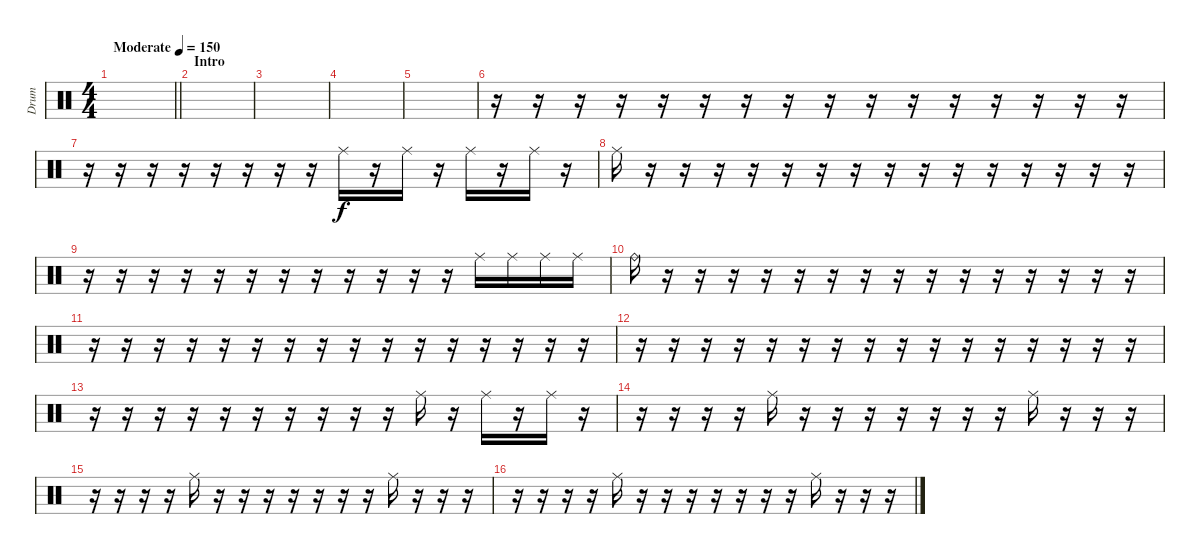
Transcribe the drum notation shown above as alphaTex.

\track ("Drum" "Drum") {instrument percussion}
\staff {score}
\articulation defaults
\ts (4 4)
\tempo (150 "Moderate")
\clef neutral
\barLineRight lightlight
\ks c
|
\section ("" "Intro")
|
|
|
|
r.16 r.16 r.16 r.16 r.16 r.16 r.16 r.16 r.16 r.16 r.16 r.16 r.16 r.16 r.16 r.16 |
r.16 r.16 r.16 r.16 r.16 r.16 r.16 r.16 "Ride (middle)".16 r.16 "Ride (middle)".16 r.16 "Ride (middle)".16 r.16 "Ride (middle)".16 r.16 |
"Ride (middle)".16 r.16 r.16 r.16 r.16 r.16 r.16 r.16 r.16 r.16 r.16 r.16 r.16 r.16 r.16 r.16 |
r.16 r.16 r.16 r.16 r.16 r.16 r.16 r.16 r.16 r.16 r.16 r.16 "Ride (middle)".16 "Ride (middle)".16 "Ride (middle)".16 "Ride (middle)".16 |
"Ride (bell)".16 r.16 r.16 r.16 r.16 r.16 r.16 r.16 r.16 r.16 r.16 r.16 r.16 r.16 r.16 r.16 |
r.16 r.16 r.16 r.16 r.16 r.16 r.16 r.16 r.16 r.16 r.16 r.16 r.16 r.16 r.16 r.16 |
r.16 r.16 r.16 r.16 r.16 r.16 r.16 r.16 r.16 r.16 r.16 r.16 r.16 r.16 r.16 r.16 |
r.16 r.16 r.16 r.16 r.16 r.16 r.16 r.16 r.16 r.16 "Ride (middle)".16 r.16 "Ride (middle)".16 r.16 "Ride (middle)".16 r.16 |
r.16 r.16 r.16 r.16 "Ride (middle)".16 r.16 r.16 r.16 r.16 r.16 r.16 r.16 "Ride (middle)".16 r.16 r.16 r.16 |
r.16 r.16 r.16 r.16 "Ride (middle)".16 r.16 r.16 r.16 r.16 r.16 r.16 r.16 "Ride (middle)".16 r.16 r.16 r.16 |
r.16 r.16 r.16 r.16 "Ride (middle)".16 r.16 r.16 r.16 r.16 r.16 r.16 r.16 "Ride (middle)".16 r.16 r.16 r.16
